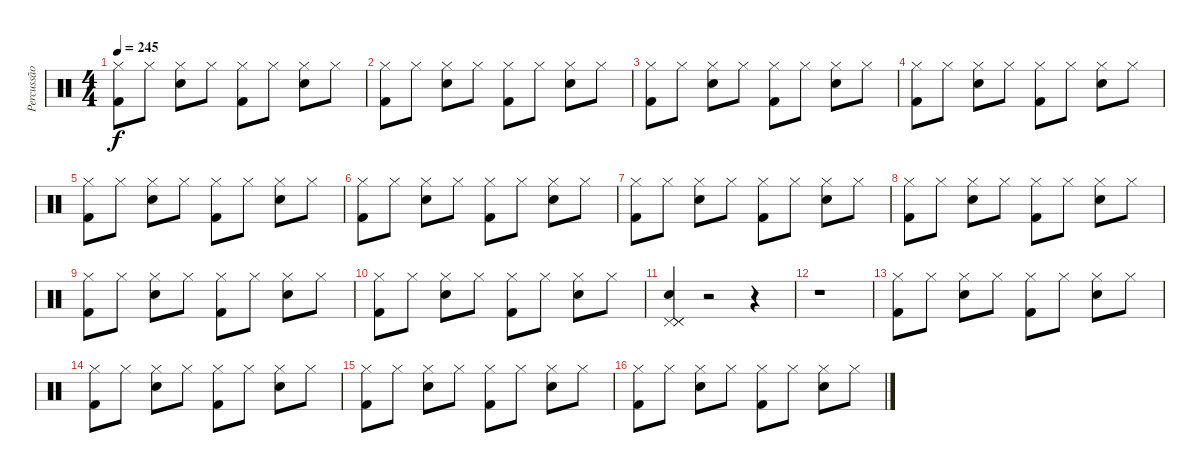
\track ("Percussão" "Percussão") {instrument percussion}
\staff {score}
\articulation defaults
\ts (4 4)
\tempo 245
\clef neutral
\ks c
("Hi-Hat (closed)" "Kick (hit) 2").8{dy f} "Hi-Hat (closed)".8 ("Hi-Hat (closed)" "Snare (hit) 2").8 "Hi-Hat (closed)".8 ("Hi-Hat (closed)" "Kick (hit) 2").8 "Hi-Hat (closed)".8 ("Hi-Hat (closed)" "Snare (hit) 2").8 "Hi-Hat (closed)".8 |
("Hi-Hat (closed)" "Kick (hit) 2").8 "Hi-Hat (closed)".8 ("Hi-Hat (closed)" "Snare (hit) 2").8 "Hi-Hat (closed)".8 ("Hi-Hat (closed)" "Kick (hit) 2").8 "Hi-Hat (closed)".8 ("Hi-Hat (closed)" "Snare (hit) 2").8 "Hi-Hat (closed)".8 |
("Hi-Hat (closed)" "Kick (hit) 2").8 "Hi-Hat (closed)".8 ("Hi-Hat (closed)" "Snare (hit) 2").8 "Hi-Hat (closed)".8 ("Hi-Hat (closed)" "Kick (hit) 2").8 "Hi-Hat (closed)".8 ("Hi-Hat (closed)" "Snare (hit) 2").8 "Hi-Hat (closed)".8 |
("Hi-Hat (closed)" "Kick (hit) 2").8 "Hi-Hat (closed)".8 ("Hi-Hat (closed)" "Snare (hit) 2").8 "Hi-Hat (closed)".8 ("Hi-Hat (closed)" "Kick (hit) 2").8 "Hi-Hat (closed)".8 ("Hi-Hat (closed)" "Snare (hit) 2").8 "Hi-Hat (closed)".8 |
("Hi-Hat (closed)" "Kick (hit) 2").8 "Hi-Hat (closed)".8 ("Hi-Hat (closed)" "Snare (hit) 2").8 "Hi-Hat (closed)".8 ("Hi-Hat (closed)" "Kick (hit) 2").8 "Hi-Hat (closed)".8 ("Hi-Hat (closed)" "Snare (hit) 2").8 "Hi-Hat (closed)".8 |
("Hi-Hat (closed)" "Kick (hit) 2").8 "Hi-Hat (closed)".8 ("Hi-Hat (closed)" "Snare (hit) 2").8 "Hi-Hat (closed)".8 ("Hi-Hat (closed)" "Kick (hit) 2").8 "Hi-Hat (closed)".8 ("Hi-Hat (closed)" "Snare (hit) 2").8 "Hi-Hat (closed)".8 |
("Hi-Hat (closed)" "Kick (hit) 2").8 "Hi-Hat (closed)".8 ("Hi-Hat (closed)" "Snare (hit) 2").8 "Hi-Hat (closed)".8 ("Hi-Hat (closed)" "Kick (hit) 2").8 "Hi-Hat (closed)".8 ("Hi-Hat (closed)" "Snare (hit) 2").8 "Hi-Hat (closed)".8 |
("Hi-Hat (closed)" "Kick (hit) 2").8 "Hi-Hat (closed)".8 ("Hi-Hat (closed)" "Snare (hit) 2").8 "Hi-Hat (closed)".8 ("Hi-Hat (closed)" "Kick (hit) 2").8 "Hi-Hat (closed)".8 ("Hi-Hat (closed)" "Snare (hit) 2").8 "Hi-Hat (closed)".8 |
("Hi-Hat (closed)" "Kick (hit) 2").8 "Hi-Hat (closed)".8 ("Hi-Hat (closed)" "Snare (hit) 2").8 "Hi-Hat (closed)".8 ("Hi-Hat (closed)" "Kick (hit) 2").8 "Hi-Hat (closed)".8 ("Hi-Hat (closed)" "Snare (hit) 2").8 "Hi-Hat (closed)".8 |
("Hi-Hat (closed)" "Kick (hit) 2").8 "Hi-Hat (closed)".8 ("Hi-Hat (closed)" "Snare (hit) 2").8 "Hi-Hat (closed)".8 ("Hi-Hat (closed)" "Kick (hit) 2").8 "Hi-Hat (closed)".8 ("Hi-Hat (closed)" "Snare (hit) 2").8 "Hi-Hat (closed)".8 |
("Pedal Hi-Hat (hit)" "Pedal Hi-Hat (hit)" "Snare (hit) 2" "Pedal Hi-Hat (hit)").4 r.2 r.4 |
r.1 |
("Hi-Hat (closed)" "Kick (hit) 2").8 "Hi-Hat (closed)".8 ("Hi-Hat (closed)" "Snare (hit) 2").8 "Hi-Hat (closed)".8 ("Hi-Hat (closed)" "Kick (hit) 2").8 "Hi-Hat (closed)".8 ("Hi-Hat (closed)" "Snare (hit) 2").8 "Hi-Hat (closed)".8 |
("Hi-Hat (closed)" "Kick (hit) 2").8 "Hi-Hat (closed)".8 ("Hi-Hat (closed)" "Snare (hit) 2").8 "Hi-Hat (closed)".8 ("Hi-Hat (closed)" "Kick (hit) 2").8 "Hi-Hat (closed)".8 ("Hi-Hat (closed)" "Snare (hit) 2").8 "Hi-Hat (closed)".8 |
("Hi-Hat (closed)" "Kick (hit) 2").8 "Hi-Hat (closed)".8 ("Hi-Hat (closed)" "Snare (hit) 2").8 "Hi-Hat (closed)".8 ("Hi-Hat (closed)" "Kick (hit) 2").8 "Hi-Hat (closed)".8 ("Hi-Hat (closed)" "Snare (hit) 2").8 "Hi-Hat (closed)".8 |
("Hi-Hat (closed)" "Kick (hit) 2").8 "Hi-Hat (closed)".8 ("Hi-Hat (closed)" "Snare (hit) 2").8 "Hi-Hat (closed)".8 ("Hi-Hat (closed)" "Kick (hit) 2").8 "Hi-Hat (closed)".8 ("Hi-Hat (closed)" "Snare (hit) 2").8 "Hi-Hat (closed)".8
